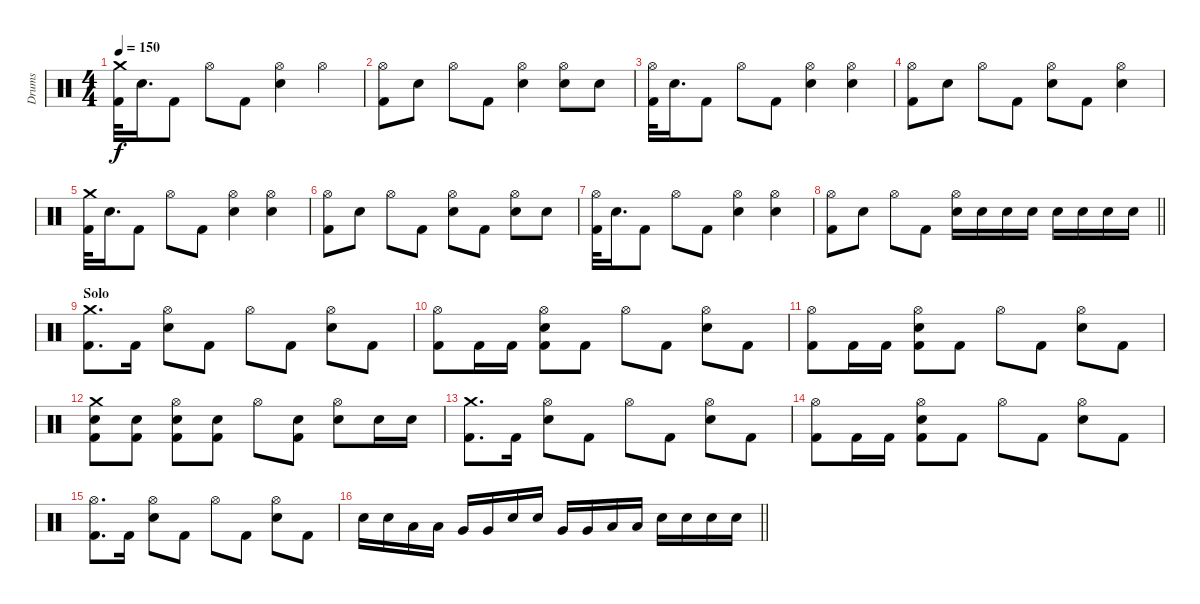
\track ("Drums" "Drums") {instrument percussion}
\staff {score}
\articulation defaults
\ts (4 4)
\tempo 150
\clef neutral
\ks c
("Crash medium (hit)" "Kick (hit) 2").32{dy f} "Snare (hit) 2".16{d} "Kick (hit) 2".8 "Hi-Hat (open)".8 "Kick (hit) 2".8 ("Hi-Hat (open)" "Snare (hit) 2").4 "Hi-Hat (open)".4 |
("Hi-Hat (open)" "Kick (hit) 2").8 "Snare (hit) 2".8 "Hi-Hat (open)".8 "Kick (hit) 2".8 ("Hi-Hat (open)" "Snare (hit) 2").4 ("Hi-Hat (open)" "Snare (hit) 2").8 "Snare (hit) 2".8 |
("Hi-Hat (open)" "Kick (hit) 2").32 "Snare (hit) 2".16{d} "Kick (hit) 2".8 "Hi-Hat (open)".8 "Kick (hit) 2".8 ("Hi-Hat (open)" "Snare (hit) 2").4 ("Hi-Hat (open)" "Snare (hit) 2").4 |
("Hi-Hat (open)" "Kick (hit) 2").8 "Snare (hit) 2".8 "Hi-Hat (open)".8 "Kick (hit) 2".8 ("Hi-Hat (open)" "Snare (hit) 2").8 "Kick (hit) 2".8 ("Hi-Hat (open)" "Snare (hit) 2").4 |
("Crash medium (hit)" "Kick (hit) 2").32 "Snare (hit) 2".16{d} "Kick (hit) 2".8 "Hi-Hat (open)".8 "Kick (hit) 2".8 ("Hi-Hat (open)" "Snare (hit) 2").4 ("Hi-Hat (open)" "Snare (hit) 2").4 |
("Hi-Hat (open)" "Kick (hit) 2").8 "Snare (hit) 2".8 "Hi-Hat (open)".8 "Kick (hit) 2".8 ("Hi-Hat (open)" "Snare (hit) 2").8 "Kick (hit) 2".8 ("Hi-Hat (open)" "Snare (hit) 2").8 "Snare (hit) 2".8 |
("Hi-Hat (open)" "Kick (hit) 2").32 "Snare (hit) 2".16{d} "Kick (hit) 2".8 "Hi-Hat (open)".8 "Kick (hit) 2".8 ("Hi-Hat (open)" "Snare (hit) 2").4 ("Hi-Hat (open)" "Snare (hit) 2").4 |
\barLineRight lightlight
("Hi-Hat (open)" "Kick (hit) 2").8 "Snare (hit) 2".8 "Hi-Hat (open)".8 "Kick (hit) 2".8 ("Hi-Hat (open)" "Snare (hit) 2").16 "Snare (hit) 2".16 "Snare (hit) 2".16 "Snare (hit) 2".16 "Snare (hit) 2".16 "Snare (hit) 2".16 "Snare (hit) 2".16 "Snare (hit) 2".16 |
\section ("" "Solo")
("Crash medium (hit)" "Kick (hit) 2").8{d} "Kick (hit) 2".16 ("Hi-Hat (open)" "Snare (hit) 2").8 "Kick (hit) 2".8 "Hi-Hat (open)".8 "Kick (hit) 2".8 ("Hi-Hat (open)" "Snare (hit) 2").8 "Kick (hit) 2".8 |
("Hi-Hat (open)" "Kick (hit) 2").8 "Kick (hit) 2".16 "Kick (hit) 2".16 ("Hi-Hat (open)" "Snare (hit) 2" "Kick (hit) 2").8 "Kick (hit) 2".8 "Hi-Hat (open)".8 "Kick (hit) 2".8 ("Hi-Hat (open)" "Snare (hit) 2").8 "Kick (hit) 2".8 |
("Hi-Hat (open)" "Kick (hit) 2").8 "Kick (hit) 2".16 "Kick (hit) 2".16 ("Hi-Hat (open)" "Snare (hit) 2" "Kick (hit) 2").8 "Kick (hit) 2".8 "Hi-Hat (open)".8 "Kick (hit) 2".8 ("Hi-Hat (open)" "Snare (hit) 2").8 "Kick (hit) 2".8 |
("Crash medium (hit)" "Snare (hit) 2" "Kick (hit) 2").8 ("Snare (hit) 2" "Kick (hit) 2").8 ("Hi-Hat (open)" "Snare (hit) 2" "Kick (hit) 2").8 ("Snare (hit) 2" "Kick (hit) 2").8 "Hi-Hat (open)".8 ("Snare (hit) 2" "Kick (hit) 2").8 ("Hi-Hat (open)" "Snare (hit) 2").8 "Snare (hit) 2".16 "Snare (hit) 2".16 |
("Crash medium (hit)" "Kick (hit) 2").8{d} "Kick (hit) 2".16 ("Hi-Hat (open)" "Snare (hit) 2").8 "Kick (hit) 2".8 "Hi-Hat (open)".8 "Kick (hit) 2".8 ("Hi-Hat (open)" "Snare (hit) 2").8 "Kick (hit) 2".8 |
("Hi-Hat (open)" "Kick (hit) 2").8 "Kick (hit) 2".16 "Kick (hit) 2".16 ("Hi-Hat (open)" "Snare (hit) 2" "Kick (hit) 2").8 "Kick (hit) 2".8 "Hi-Hat (open)".8 "Kick (hit) 2".8 ("Hi-Hat (open)" "Snare (hit) 2").8 "Kick (hit) 2".8 |
("Hi-Hat (open)" "Kick (hit) 2").8{d} "Kick (hit) 2".16 ("Hi-Hat (open)" "Snare (hit) 2").8 "Kick (hit) 2".8 "Hi-Hat (open)".8 "Kick (hit) 2".8 ("Hi-Hat (open)" "Snare (hit) 2").8 "Kick (hit) 2".8 |
\barLineRight lightlight "Snare (hit) 2".16 "Snare (hit) 2".16 "Low Tom (hit)".16 "Low Tom (hit)".16 "Very Low Tom (hit)".16 "Very Low Tom (hit)".16 "Snare (hit) 2".16 "Snare (hit) 2".16 "Very Low Tom (hit)".16 "Very Low Tom (hit)".16 "Low Floor Tom (hit)".16 "Low Floor Tom (hit)".16 "Snare (hit) 2".16 "Snare (hit) 2".16 "Snare (hit) 2".16 "Snare (hit) 2".16
